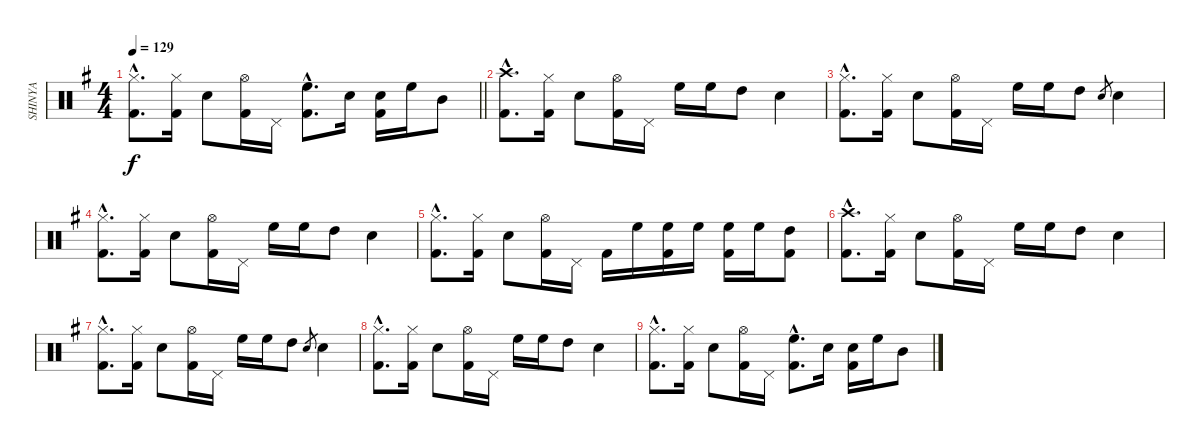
\track ("SHINYA" "SHINYA") {instrument percussion}
\staff {score}
\articulation defaults
\ts (4 4)
\tempo 129
\clef neutral
\barLineRight lightlight
\ks g
("Hi-Hat (closed)"{hac} "Kick (hit) 2"{hac}).8{d dy f} ("Hi-Hat (closed)" "Kick (hit) 2").16 "Snare (hit) 2".8 ("Hi-Hat (open)" "Kick (hit) 2").16 "Pedal Hi-Hat (hit)".16 ("High Floor Tom (hit)"{hac} "Kick (hit) 2"{hac}).8{d} "Snare (hit) 2".16 ("Snare (hit) 2" "Kick (hit) 2").16 "High Floor Tom (hit)".16 "Mid Tom (hit)".8 |
("Crash high (hit)"{hac} "Kick (hit) 2"{hac}).8{d} ("Hi-Hat (closed)" "Kick (hit) 2").16 "Snare (hit) 2".8 ("Hi-Hat (open)" "Kick (hit) 2").16 "Pedal Hi-Hat (hit)".16 "High Floor Tom (hit)".16 "High Floor Tom (hit)".16 "High Tom (hit)".8 "Snare (hit) 2".4 |
("Hi-Hat (closed)"{hac} "Kick (hit) 2"{hac}).8{d} ("Hi-Hat (closed)" "Kick (hit) 2").16 "Snare (hit) 2".8 ("Hi-Hat (open)" "Kick (hit) 2").16 "Pedal Hi-Hat (hit)".16 "High Floor Tom (hit)".16 "High Floor Tom (hit)".16 "High Tom (hit)".8 "Snare (hit) 2".8{gr} "Snare (hit) 2".4 |
("Hi-Hat (closed)"{hac} "Kick (hit) 2"{hac}).8{d} ("Hi-Hat (closed)" "Kick (hit) 2").16 "Snare (hit) 2".8 ("Hi-Hat (open)" "Kick (hit) 2").16 "Pedal Hi-Hat (hit)".16 "High Floor Tom (hit)".16 "High Floor Tom (hit)".16 "High Tom (hit)".8 "Snare (hit) 2".4 |
("Hi-Hat (closed)"{hac} "Kick (hit) 2"{hac}).8{d} ("Hi-Hat (closed)" "Kick (hit) 2").16 "Snare (hit) 2".8 ("Hi-Hat (open)" "Kick (hit) 2").16 "Pedal Hi-Hat (hit)".16 "Kick (hit) 2".16 "High Floor Tom (hit)".16 ("High Floor Tom (hit)" "Kick (hit) 2").16 "High Floor Tom (hit)".16 ("High Floor Tom (hit)" "Kick (hit) 2").16 "High Floor Tom (hit)".16 ("High Tom (hit)" "Kick (hit) 2").8 |
("Crash high (hit)"{hac} "Kick (hit) 2"{hac}).8{d} ("Hi-Hat (closed)" "Kick (hit) 2").16 "Snare (hit) 2".8 ("Hi-Hat (open)" "Kick (hit) 2").16 "Pedal Hi-Hat (hit)".16 "High Floor Tom (hit)".16 "High Floor Tom (hit)".16 "High Tom (hit)".8 "Snare (hit) 2".4 |
("Hi-Hat (closed)"{hac} "Kick (hit) 2"{hac}).8{d} ("Hi-Hat (closed)" "Kick (hit) 2").16 "Snare (hit) 2".8 ("Hi-Hat (open)" "Kick (hit) 2").16 "Pedal Hi-Hat (hit)".16 "High Floor Tom (hit)".16 "High Floor Tom (hit)".16 "High Tom (hit)".8 "Snare (hit) 2".8{gr} "Snare (hit) 2".4 |
("Hi-Hat (closed)"{hac} "Kick (hit) 2"{hac}).8{d} ("Hi-Hat (closed)" "Kick (hit) 2").16 "Snare (hit) 2".8 ("Hi-Hat (open)" "Kick (hit) 2").16 "Pedal Hi-Hat (hit)".16 "High Floor Tom (hit)".16 "High Floor Tom (hit)".16 "High Tom (hit)".8 "Snare (hit) 2".4 |
("Hi-Hat (closed)"{hac} "Kick (hit) 2"{hac}).8{d} ("Hi-Hat (closed)" "Kick (hit) 2").16 "Snare (hit) 2".8 ("Hi-Hat (open)" "Kick (hit) 2").16 "Pedal Hi-Hat (hit)".16 ("High Floor Tom (hit)"{hac} "Kick (hit) 2"{hac}).8{d} "Snare (hit) 2".16 ("Snare (hit) 2" "Kick (hit) 2").16 "High Floor Tom (hit)".16 "Mid Tom (hit)".8
